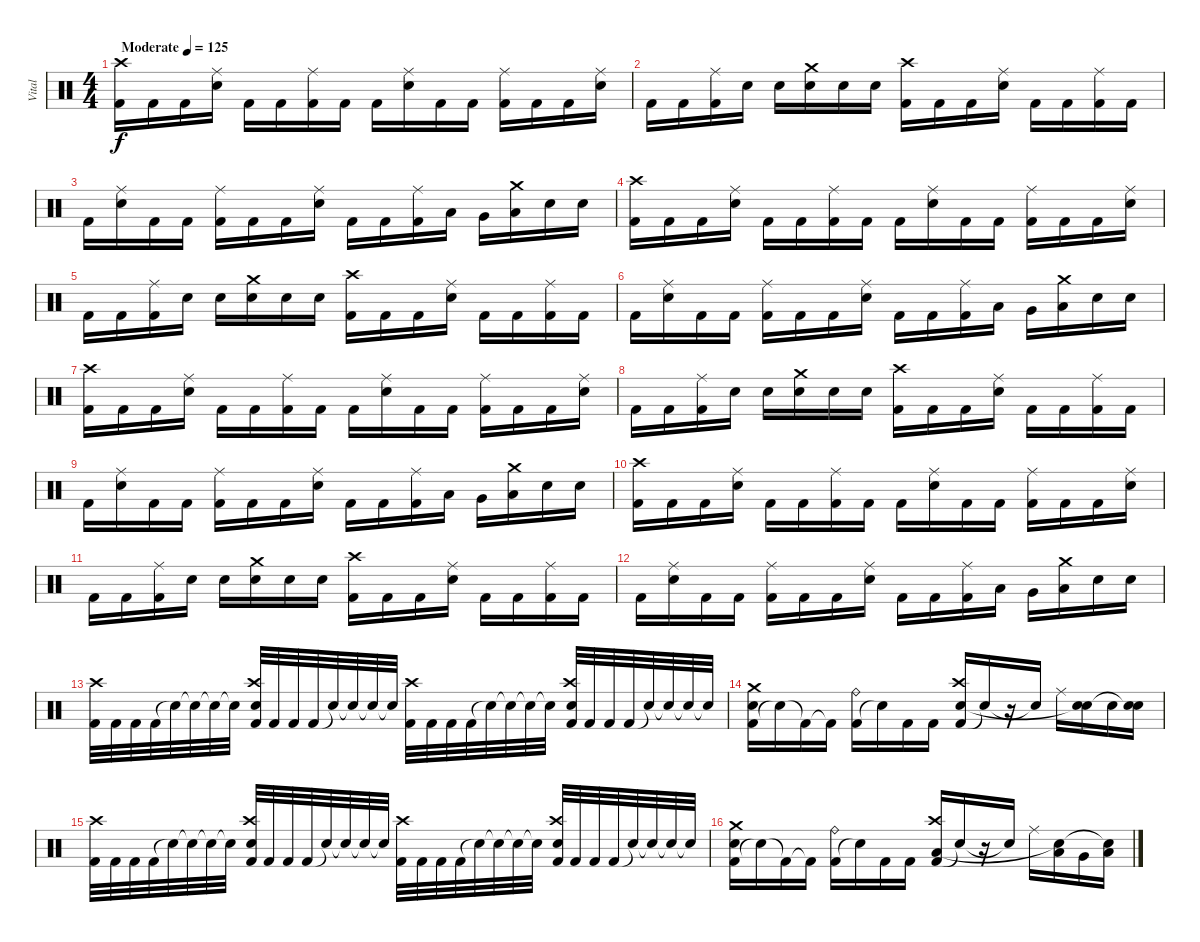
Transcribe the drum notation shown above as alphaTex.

\track ("Vital" "Vital") {instrument percussion}
\staff {score}
\articulation defaults
\ts (4 4)
\tempo (125 "Moderate")
\clef neutral
\ks c
("Kick (hit) 2" "Crash high (hit)").16{dy f} "Kick (hit) 2".16 "Kick (hit) 2".16 ("Snare (hit) 2" "Ride (middle)").16 "Kick (hit) 2".16 "Kick (hit) 2".16 ("Kick (hit) 2" "Ride (middle)").16 "Kick (hit) 2".16 "Kick (hit) 2".16 ("Snare (hit) 2" "Ride (middle)").16 "Kick (hit) 2".16 "Kick (hit) 2".16 ("Kick (hit) 2" "Ride (middle)").16 "Kick (hit) 2".16 "Kick (hit) 2".16 ("Snare (hit) 2" "Ride (middle)").16 |
"Kick (hit) 2".16 "Kick (hit) 2".16 ("Kick (hit) 2" "Ride (middle)").16 "Snare (hit) 2".16 "Snare (hit) 2".16 ("Snare (hit) 2" "Crash medium (hit)").16 "Snare (hit) 2".16 "Snare (hit) 2".16 ("Kick (hit) 2" "Crash high (hit)").16 "Kick (hit) 2".16 "Kick (hit) 2".16 ("Snare (hit) 2" "Ride (middle)").16 "Kick (hit) 2".16 "Kick (hit) 2".16 ("Kick (hit) 2" "Ride (middle)").16 "Kick (hit) 2".16 |
"Kick (hit) 2".16 ("Snare (hit) 2" "Ride (middle)").16 "Kick (hit) 2".16 "Kick (hit) 2".16 ("Kick (hit) 2" "Ride (middle)").16 "Kick (hit) 2".16 "Kick (hit) 2".16 ("Snare (hit) 2" "Ride (middle)").16 "Kick (hit) 2".16 "Kick (hit) 2".16 ("Kick (hit) 2" "Ride (middle)").16 "Low Tom (hit)".16 "Very Low Tom (hit)".16 ("Low Floor Tom (hit)" "Crash medium (hit)").16 "Snare (hit) 2".16 "Snare (hit) 2".16 |
("Kick (hit) 2" "Crash high (hit)").16 "Kick (hit) 2".16 "Kick (hit) 2".16 ("Snare (hit) 2" "Ride (middle)").16 "Kick (hit) 2".16 "Kick (hit) 2".16 ("Kick (hit) 2" "Ride (middle)").16 "Kick (hit) 2".16 "Kick (hit) 2".16 ("Snare (hit) 2" "Ride (middle)").16 "Kick (hit) 2".16 "Kick (hit) 2".16 ("Kick (hit) 2" "Ride (middle)").16 "Kick (hit) 2".16 "Kick (hit) 2".16 ("Snare (hit) 2" "Ride (middle)").16 |
"Kick (hit) 2".16 "Kick (hit) 2".16 ("Kick (hit) 2" "Ride (middle)").16 "Snare (hit) 2".16 "Snare (hit) 2".16 ("Snare (hit) 2" "Crash medium (hit)").16 "Snare (hit) 2".16 "Snare (hit) 2".16 ("Kick (hit) 2" "Crash high (hit)").16 "Kick (hit) 2".16 "Kick (hit) 2".16 ("Snare (hit) 2" "Ride (middle)").16 "Kick (hit) 2".16 "Kick (hit) 2".16 ("Kick (hit) 2" "Ride (middle)").16 "Kick (hit) 2".16 |
"Kick (hit) 2".16 ("Snare (hit) 2" "Ride (middle)").16 "Kick (hit) 2".16 "Kick (hit) 2".16 ("Kick (hit) 2" "Ride (middle)").16 "Kick (hit) 2".16 "Kick (hit) 2".16 ("Snare (hit) 2" "Ride (middle)").16 "Kick (hit) 2".16 "Kick (hit) 2".16 ("Kick (hit) 2" "Ride (middle)").16 "Low Tom (hit)".16 "Very Low Tom (hit)".16 ("Low Floor Tom (hit)" "Crash medium (hit)").16 "Snare (hit) 2".16 "Snare (hit) 2".16 |
("Kick (hit) 2" "Crash high (hit)").16 "Kick (hit) 2".16 "Kick (hit) 2".16 ("Snare (hit) 2" "Ride (middle)").16 "Kick (hit) 2".16 "Kick (hit) 2".16 ("Kick (hit) 2" "Ride (middle)").16 "Kick (hit) 2".16 "Kick (hit) 2".16 ("Snare (hit) 2" "Ride (middle)").16 "Kick (hit) 2".16 "Kick (hit) 2".16 ("Kick (hit) 2" "Ride (middle)").16 "Kick (hit) 2".16 "Kick (hit) 2".16 ("Snare (hit) 2" "Ride (middle)").16 |
"Kick (hit) 2".16 "Kick (hit) 2".16 ("Kick (hit) 2" "Ride (middle)").16 "Snare (hit) 2".16 "Snare (hit) 2".16 ("Snare (hit) 2" "Crash medium (hit)").16 "Snare (hit) 2".16 "Snare (hit) 2".16 ("Kick (hit) 2" "Crash high (hit)").16 "Kick (hit) 2".16 "Kick (hit) 2".16 ("Snare (hit) 2" "Ride (middle)").16 "Kick (hit) 2".16 "Kick (hit) 2".16 ("Kick (hit) 2" "Ride (middle)").16 "Kick (hit) 2".16 |
"Kick (hit) 2".16 ("Snare (hit) 2" "Ride (middle)").16 "Kick (hit) 2".16 "Kick (hit) 2".16 ("Kick (hit) 2" "Ride (middle)").16 "Kick (hit) 2".16 "Kick (hit) 2".16 ("Snare (hit) 2" "Ride (middle)").16 "Kick (hit) 2".16 "Kick (hit) 2".16 ("Kick (hit) 2" "Ride (middle)").16 "Low Tom (hit)".16 "Very Low Tom (hit)".16 ("Low Floor Tom (hit)" "Crash medium (hit)").16 "Snare (hit) 2".16 "Snare (hit) 2".16 |
("Kick (hit) 2" "Crash high (hit)").16 "Kick (hit) 2".16 "Kick (hit) 2".16 ("Snare (hit) 2" "Ride (middle)").16 "Kick (hit) 2".16 "Kick (hit) 2".16 ("Kick (hit) 2" "Ride (middle)").16 "Kick (hit) 2".16 "Kick (hit) 2".16 ("Snare (hit) 2" "Ride (middle)").16 "Kick (hit) 2".16 "Kick (hit) 2".16 ("Kick (hit) 2" "Ride (middle)").16 "Kick (hit) 2".16 "Kick (hit) 2".16 ("Snare (hit) 2" "Ride (middle)").16 |
"Kick (hit) 2".16 "Kick (hit) 2".16 ("Kick (hit) 2" "Ride (middle)").16 "Snare (hit) 2".16 "Snare (hit) 2".16 ("Snare (hit) 2" "Crash medium (hit)").16 "Snare (hit) 2".16 "Snare (hit) 2".16 ("Kick (hit) 2" "Crash high (hit)").16 "Kick (hit) 2".16 "Kick (hit) 2".16 ("Snare (hit) 2" "Ride (middle)").16 "Kick (hit) 2".16 "Kick (hit) 2".16 ("Kick (hit) 2" "Ride (middle)").16 "Kick (hit) 2".16 |
"Kick (hit) 2".16 ("Snare (hit) 2" "Ride (middle)").16 "Kick (hit) 2".16 "Kick (hit) 2".16 ("Kick (hit) 2" "Ride (middle)").16 "Kick (hit) 2".16 "Kick (hit) 2".16 ("Snare (hit) 2" "Ride (middle)").16 "Kick (hit) 2".16 "Kick (hit) 2".16 ("Kick (hit) 2" "Ride (middle)").16 "Low Tom (hit)".16 "Very Low Tom (hit)".16 ("Low Floor Tom (hit)" "Crash medium (hit)").16 "Snare (hit) 2".16 "Snare (hit) 2".16 |
("Kick (hit) 2" "Crash high (hit)").32 "Kick (hit) 2".32 "Kick (hit) 2".32 "Kick (hit) 2".32 "Snare (hit)"{t}.32 "Snare (hit)"{t}.32 "Snare (hit)"{t}.32 "Snare (hit)"{t}.32 ("Kick (hit) 2" "Snare (hit) 2" "Crash high (hit)").32 "Kick (hit) 2".32 "Kick (hit) 2".32 "Kick (hit) 2".32 "Snare (hit)"{t}.32 "Snare (hit)"{t}.32 "Snare (hit)"{t}.32 "Snare (hit)"{t}.32 ("Kick (hit) 2" "Crash high (hit)").32 "Kick (hit) 2".32 "Kick (hit) 2".32 "Kick (hit) 2".32 "Snare (hit)"{t}.32 "Snare (hit)"{t}.32 "Snare (hit)"{t}.32 "Snare (hit)"{t}.32 ("Kick (hit) 2" "Snare (hit) 2" "Crash high (hit)").32 "Kick (hit) 2".32 "Kick (hit) 2".32 "Kick (hit) 2".32 "Snare (hit)"{t}.32 "Snare (hit)"{t}.32 "Snare (hit)"{t}.32 "Snare (hit)"{t}.32 |
("Kick (hit) 2" "Snare (hit) 2" "Crash medium (hit)").16 "Snare (hit)"{t}.16 "Kick (hit) 2"{t}.16 "Kick (hit) 2"{t}.16 ("Kick (hit) 2" "Ride (bell)").16 "Snare (hit)"{t}.16 "Kick (hit) 2".16 "Kick (hit) 2".16 ("Kick (hit) 2" "Snare (hit) 2" "Crash high (hit)").16 "Snare (hit)"{t}.16 r.16 "Snare (hit)"{t}.16 "Ride (middle)".16 ("Snare (hit) 2" "Snare (hit)"{t}).16 "Snare (hit) 2".16 ("Snare (hit) 2" "Snare (hit)"{t}).16 |
("Kick (hit) 2" "Crash high (hit)").32 "Kick (hit) 2".32 "Kick (hit) 2".32 "Kick (hit) 2".32 "Snare (hit)"{t}.32 "Snare (hit)"{t}.32 "Snare (hit)"{t}.32 "Snare (hit)"{t}.32 ("Kick (hit) 2" "Snare (hit) 2" "Crash high (hit)").32 "Kick (hit) 2".32 "Kick (hit) 2".32 "Kick (hit) 2".32 "Snare (hit)"{t}.32 "Snare (hit)"{t}.32 "Snare (hit)"{t}.32 "Snare (hit)"{t}.32 ("Kick (hit) 2" "Crash high (hit)").32 "Kick (hit) 2".32 "Kick (hit) 2".32 "Kick (hit) 2".32 "Snare (hit)"{t}.32 "Snare (hit)"{t}.32 "Snare (hit)"{t}.32 "Snare (hit)"{t}.32 ("Kick (hit) 2" "Snare (hit) 2" "Crash high (hit)").32 "Kick (hit) 2".32 "Kick (hit) 2".32 "Kick (hit) 2".32 "Snare (hit)"{t}.32 "Snare (hit)"{t}.32 "Snare (hit)"{t}.32 "Snare (hit)"{t}.32 |
("Kick (hit) 2" "Snare (hit) 2" "Crash medium (hit)").16 "Snare (hit)"{t}.16 "Kick (hit) 2"{t}.16 "Kick (hit) 2"{t}.16 ("Kick (hit) 2" "Ride (bell)").16 "Snare (hit)"{t}.16 "Kick (hit) 2".16 "Kick (hit) 2".16 ("Kick (hit) 2" "Low Floor Tom (hit)" "Crash high (hit)").16 "Snare (hit)"{t}.16 r.16 "Snare (hit)"{t}.16 "Ride (middle)".16 ("Low Tom (hit)" "Snare (hit)"{t}).16 "Very Low Tom (hit)".16 ("Low Floor Tom (hit)" "Snare (hit)"{t}).16
